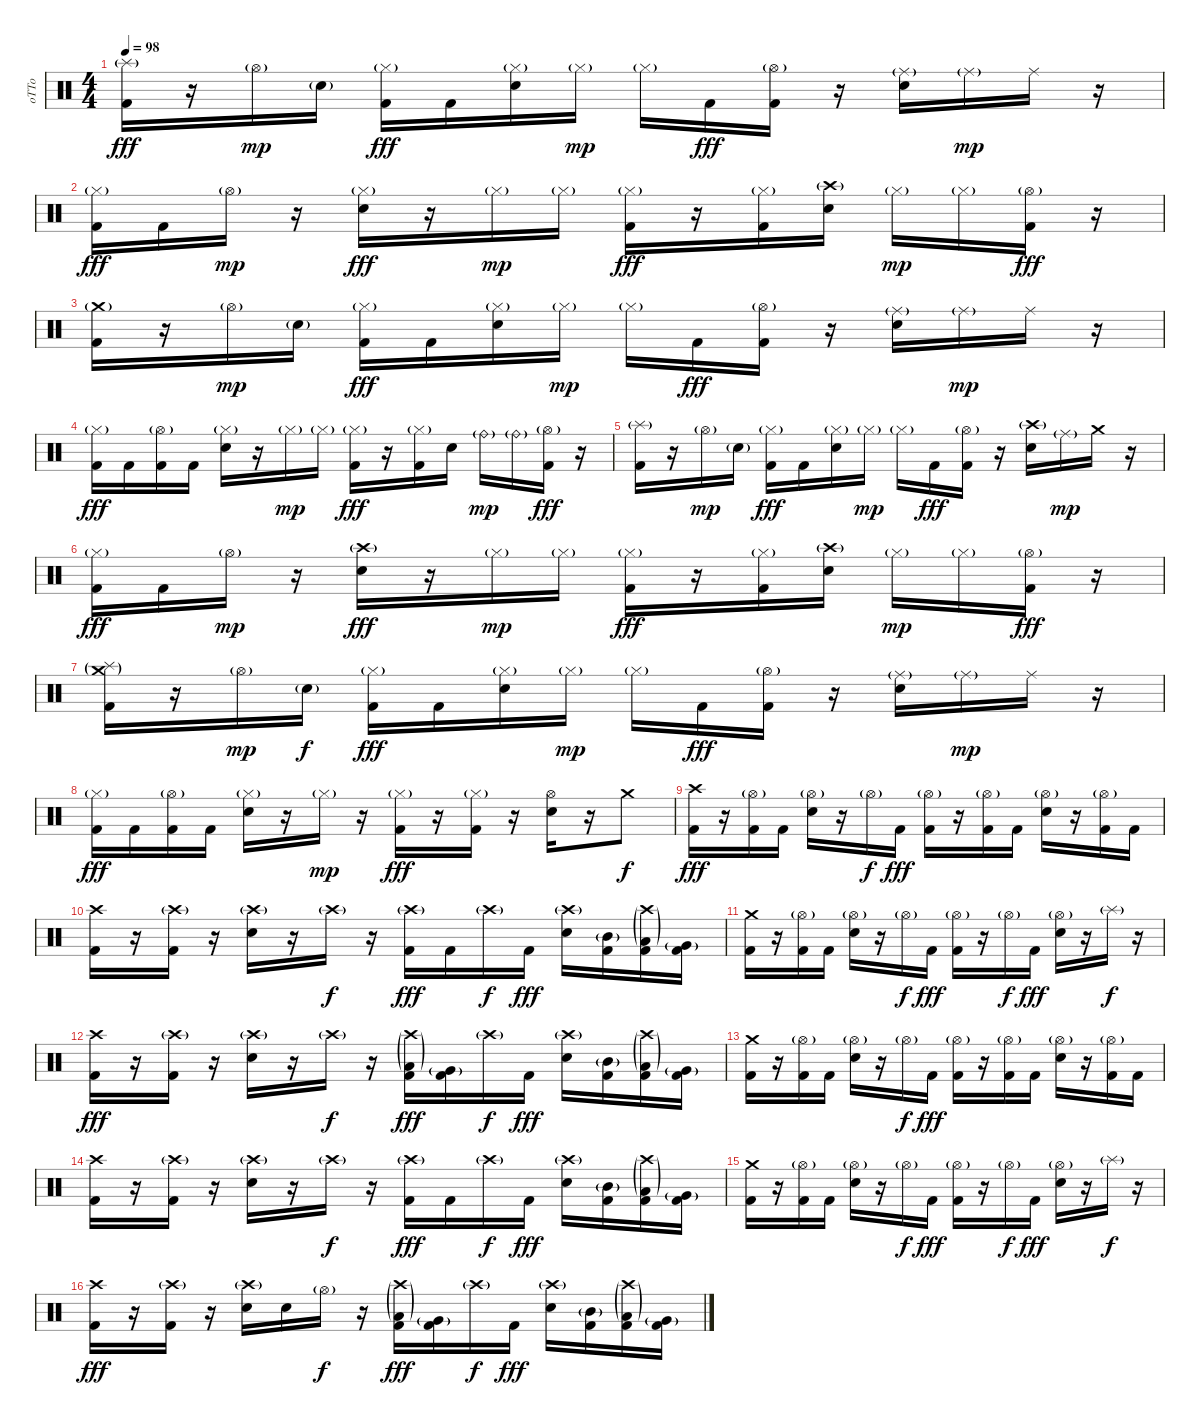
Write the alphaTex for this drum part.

\track ("oTTo" "oTTo") {instrument percussion}
\staff {score}
\articulation defaults
\ts (4 4)
\tempo 98
\clef neutral
\ks c
("Splash (hit)"{g} "Kick (hit) 2").16{dy fff} r.16 "Hi-Hat (open)"{g}.16{dy mp} "Snare (hit) 2"{g}.16 ("Hi-Hat (closed)"{g} "Kick (hit) 2").16{dy fff} "Kick (hit) 2".16 ("Hi-Hat (closed)"{g} "Snare (hit) 2").16 "Hi-Hat (closed)"{g}.16{dy mp} "Hi-Hat (closed)"{g}.16 "Kick (hit) 2".16{dy fff} ("Hi-Hat (open)"{g} "Kick (hit) 2").16 r.16 ("Ride (middle)"{g} "Snare (hit) 2").16 "Ride (middle)"{g}.16{dy mp} "Ride (middle)".16 r.16 |
("Hi-Hat (closed)"{g} "Kick (hit) 2").16{dy fff} "Kick (hit) 2".16 "Hi-Hat (open)"{g}.16{dy mp} r.16 ("Hi-Hat (closed)"{g} "Snare (hit) 2").16{dy fff} r.16 "Hi-Hat (closed)"{g}.16{dy mp} "Hi-Hat (closed)"{g}.16 ("Hi-Hat (closed)"{g} "Kick (hit) 2").16{dy fff} r.16 ("Hi-Hat (closed)"{g} "Kick (hit) 2").16 ("Crash high (hit)"{g} "Snare (hit) 2").16 "Hi-Hat (closed)"{g}.16{dy mp} "Hi-Hat (closed)"{g}.16 ("Hi-Hat (open)"{g} "Kick (hit) 2").16{dy fff} r.16 |
("Crash medium (hit)"{g} "Kick (hit) 2").16 r.16 "Hi-Hat (open)"{g}.16{dy mp} "Snare (hit) 2"{g}.16 ("Hi-Hat (closed)"{g} "Kick (hit) 2").16{dy fff} "Kick (hit) 2".16 ("Hi-Hat (closed)"{g} "Snare (hit) 2").16 "Hi-Hat (closed)"{g}.16{dy mp} "Hi-Hat (closed)"{g}.16 "Kick (hit) 2".16{dy fff} ("Hi-Hat (open)"{g} "Kick (hit) 2").16 r.16 ("Ride (middle)"{g} "Snare (hit) 2").16 "Ride (middle)"{g}.16{dy mp} "Ride (middle)".16 r.16 |
("Hi-Hat (closed)"{g} "Kick (hit) 2").16{dy fff} "Kick (hit) 2".16 ("Hi-Hat (open)"{g} "Kick (hit) 2").16 "Kick (hit) 2".16 ("Hi-Hat (closed)"{g} "Snare (hit) 2").16 r.16 "Hi-Hat (closed)"{g}.16{dy mp} "Hi-Hat (closed)"{g}.16 ("Hi-Hat (closed)"{g} "Kick (hit) 2").16{dy fff} r.16 ("Hi-Hat (closed)"{g} "Kick (hit) 2").16 "Snare (hit) 2".16 "Ride (bell)"{g}.16{dy mp} "Ride (bell)"{g}.16 ("Hi-Hat (open)"{g} "Kick (hit) 2").16{dy fff} r.16 |
("Splash (hit)"{g} "Kick (hit) 2").16 r.16 "Hi-Hat (open)"{g}.16{dy mp} "Snare (hit) 2"{g}.16 ("Hi-Hat (closed)"{g} "Kick (hit) 2").16{dy fff} "Kick (hit) 2".16 ("Hi-Hat (closed)"{g} "Snare (hit) 2").16 "Hi-Hat (closed)"{g}.16{dy mp} "Hi-Hat (closed)"{g}.16 "Kick (hit) 2".16{dy fff} ("Hi-Hat (open)"{g} "Kick (hit) 2").16 r.16 ("Crash high (hit)"{g} "Snare (hit) 2").16 "Ride (middle)"{g}.16{dy mp} "Crash medium (hit)".16 r.16 |
("Hi-Hat (closed)"{g} "Kick (hit) 2").16{dy fff} "Kick (hit) 2".16 "Hi-Hat (open)"{g}.16{dy mp} r.16 ("Crash high (hit)"{g} "Snare (hit) 2").16{dy fff} r.16 "Hi-Hat (closed)"{g}.16{dy mp} "Hi-Hat (closed)"{g}.16 ("Hi-Hat (closed)"{g} "Kick (hit) 2").16{dy fff} r.16 ("Hi-Hat (closed)"{g} "Kick (hit) 2").16 ("Crash high (hit)"{g} "Snare (hit) 2").16 "Hi-Hat (closed)"{g}.16{dy mp} "Hi-Hat (closed)"{g}.16 ("Hi-Hat (open)"{g} "Kick (hit) 2").16{dy fff} r.16 |
("Splash (hit)"{g} "Crash medium (hit)"{g} "Kick (hit) 2").16 r.16 "Hi-Hat (open)"{g}.16{dy mp} "Snare (hit) 2"{g}.16{dy f} ("Hi-Hat (closed)"{g} "Kick (hit) 2").16{dy fff} "Kick (hit) 2".16 ("Hi-Hat (closed)"{g} "Snare (hit) 2").16 "Hi-Hat (closed)"{g}.16{dy mp} "Hi-Hat (closed)"{g}.16 "Kick (hit) 2".16{dy fff} ("Hi-Hat (open)"{g} "Kick (hit) 2").16 r.16 ("Ride (middle)"{g} "Snare (hit) 2").16 "Ride (middle)"{g}.16{dy mp} "Ride (middle)".16 r.16 |
("Hi-Hat (closed)"{g} "Kick (hit) 2").16{dy fff} "Kick (hit) 2".16 ("Hi-Hat (open)"{g} "Kick (hit) 2").16 "Kick (hit) 2".16 ("Hi-Hat (closed)"{g} "Snare (hit) 2").16 r.16 "Hi-Hat (closed)"{g}.16{dy mp} r.16 ("Hi-Hat (closed)"{g} "Kick (hit) 2").16{dy fff} r.16 ("Hi-Hat (closed)"{g} "Kick (hit) 2").16 r.16 ("Hi-Hat (open)" "Snare (hit) 2").16 r.16 "Crash medium (hit)".8{dy f} |
("Crash high (hit)" "Kick (hit) 2").16{dy fff} r.16 ("Hi-Hat (open)"{g} "Kick (hit) 2").16 "Kick (hit) 2".16 ("Hi-Hat (open)"{g} "Snare (hit) 2").16 r.16 "Hi-Hat (open)"{g}.16{dy f} "Kick (hit) 2".16{dy fff} ("Hi-Hat (open)"{g} "Kick (hit) 2").16 r.16 ("Hi-Hat (open)"{g} "Kick (hit) 2").16 "Kick (hit) 2".16 ("Hi-Hat (open)"{g} "Snare (hit) 2").16 r.16 ("Hi-Hat (open)"{g} "Kick (hit) 2").16 "Kick (hit) 2".16 |
("Crash high (hit)" "Kick (hit) 2").16 r.16 ("Crash high (hit)"{g} "Kick (hit) 2").16 r.16 ("Crash high (hit)"{g} "Snare (hit) 2").16 r.16 "Crash high (hit)"{g}.16{dy f} r.16 ("Crash high (hit)"{g} "Kick (hit) 2").16{dy fff} "Kick (hit) 2".16 "Crash high (hit)"{g}.16{dy f} "Kick (hit) 2".16{dy fff} ("Crash high (hit)"{g} "Snare (hit) 2").16 ("Mid Tom (hit)"{g} "Kick (hit) 2").16 ("Crash high (hit)"{g} "Low Tom (hit)"{g} "Kick (hit) 2").16 ("Very Low Tom (hit)"{g} "Kick (hit) 2").16 |
("Crash medium (hit)" "Kick (hit) 2").16 r.16 ("Hi-Hat (open)"{g} "Kick (hit) 2").16 "Kick (hit) 2".16 ("Hi-Hat (open)"{g} "Snare (hit) 2").16 r.16 "Hi-Hat (open)"{g}.16{dy f} "Kick (hit) 2".16{dy fff} ("Hi-Hat (open)"{g} "Kick (hit) 2").16 r.16 "Hi-Hat (open)"{g}.16{dy f} "Kick (hit) 2".16{dy fff} ("Hi-Hat (open)"{g} "Snare (hit) 2").16 r.16 "Splash (hit)"{g}.16{dy f} r.16 |
("Crash high (hit)" "Kick (hit) 2").16{dy fff} r.16 ("Crash high (hit)"{g} "Kick (hit) 2").16 r.16 ("Crash high (hit)"{g} "Snare (hit) 2").16 r.16 "Crash high (hit)"{g}.16{dy f} r.16 ("Crash high (hit)"{g} "Low Tom (hit)"{g} "Kick (hit) 2").16{dy fff} ("Very Low Tom (hit)"{g} "Kick (hit) 2").16 "Crash high (hit)"{g}.16{dy f} "Kick (hit) 2".16{dy fff} ("Crash high (hit)"{g} "Snare (hit) 2").16 ("Mid Tom (hit)"{g} "Kick (hit) 2").16 ("Crash high (hit)"{g} "Low Tom (hit)"{g} "Kick (hit) 2").16 ("Very Low Tom (hit)"{g} "Kick (hit) 2").16 |
("Crash medium (hit)" "Kick (hit) 2").16 r.16 ("Hi-Hat (open)"{g} "Kick (hit) 2").16 "Kick (hit) 2".16 ("Hi-Hat (open)"{g} "Snare (hit) 2").16 r.16 "Hi-Hat (open)"{g}.16{dy f} "Kick (hit) 2".16{dy fff} ("Hi-Hat (open)"{g} "Kick (hit) 2").16 r.16 ("Hi-Hat (open)"{g} "Kick (hit) 2").16 "Kick (hit) 2".16 ("Hi-Hat (open)"{g} "Snare (hit) 2").16 r.16 ("Hi-Hat (open)"{g} "Kick (hit) 2").16 "Kick (hit) 2".16 |
("Crash high (hit)" "Kick (hit) 2").16 r.16 ("Crash high (hit)"{g} "Kick (hit) 2").16 r.16 ("Crash high (hit)"{g} "Snare (hit) 2").16 r.16 "Crash high (hit)"{g}.16{dy f} r.16 ("Crash high (hit)"{g} "Kick (hit) 2").16{dy fff} "Kick (hit) 2".16 "Crash high (hit)"{g}.16{dy f} "Kick (hit) 2".16{dy fff} ("Crash high (hit)"{g} "Snare (hit) 2").16 ("Mid Tom (hit)"{g} "Kick (hit) 2").16 ("Crash high (hit)"{g} "Low Tom (hit)"{g} "Kick (hit) 2").16 ("Very Low Tom (hit)"{g} "Kick (hit) 2").16 |
("Crash medium (hit)" "Kick (hit) 2").16 r.16 ("Hi-Hat (open)"{g} "Kick (hit) 2").16 "Kick (hit) 2".16 ("Hi-Hat (open)"{g} "Snare (hit) 2").16 r.16 "Hi-Hat (open)"{g}.16{dy f} "Kick (hit) 2".16{dy fff} ("Hi-Hat (open)"{g} "Kick (hit) 2").16 r.16 "Hi-Hat (open)"{g}.16{dy f} "Kick (hit) 2".16{dy fff} ("Hi-Hat (open)"{g} "Snare (hit) 2").16 r.16 "Splash (hit)"{g}.16{dy f} r.16 |
("Crash high (hit)" "Kick (hit) 2").16{dy fff} r.16 ("Crash high (hit)"{g} "Kick (hit) 2").16 r.16 ("Crash high (hit)"{g} "Snare (hit) 2").16 "Snare (hit) 2".16 "Hi-Hat (open)"{g}.16{dy f} r.16 ("Crash high (hit)"{g} "Low Tom (hit)"{g} "Kick (hit) 2").16{dy fff} ("Very Low Tom (hit)"{g} "Kick (hit) 2").16 "Crash high (hit)"{g}.16{dy f} "Kick (hit) 2".16{dy fff} ("Crash high (hit)"{g} "Snare (hit) 2").16 ("Mid Tom (hit)"{g} "Kick (hit) 2").16 ("Crash high (hit)"{g} "Low Tom (hit)"{g} "Kick (hit) 2").16 ("Very Low Tom (hit)"{g} "Kick (hit) 2").16
